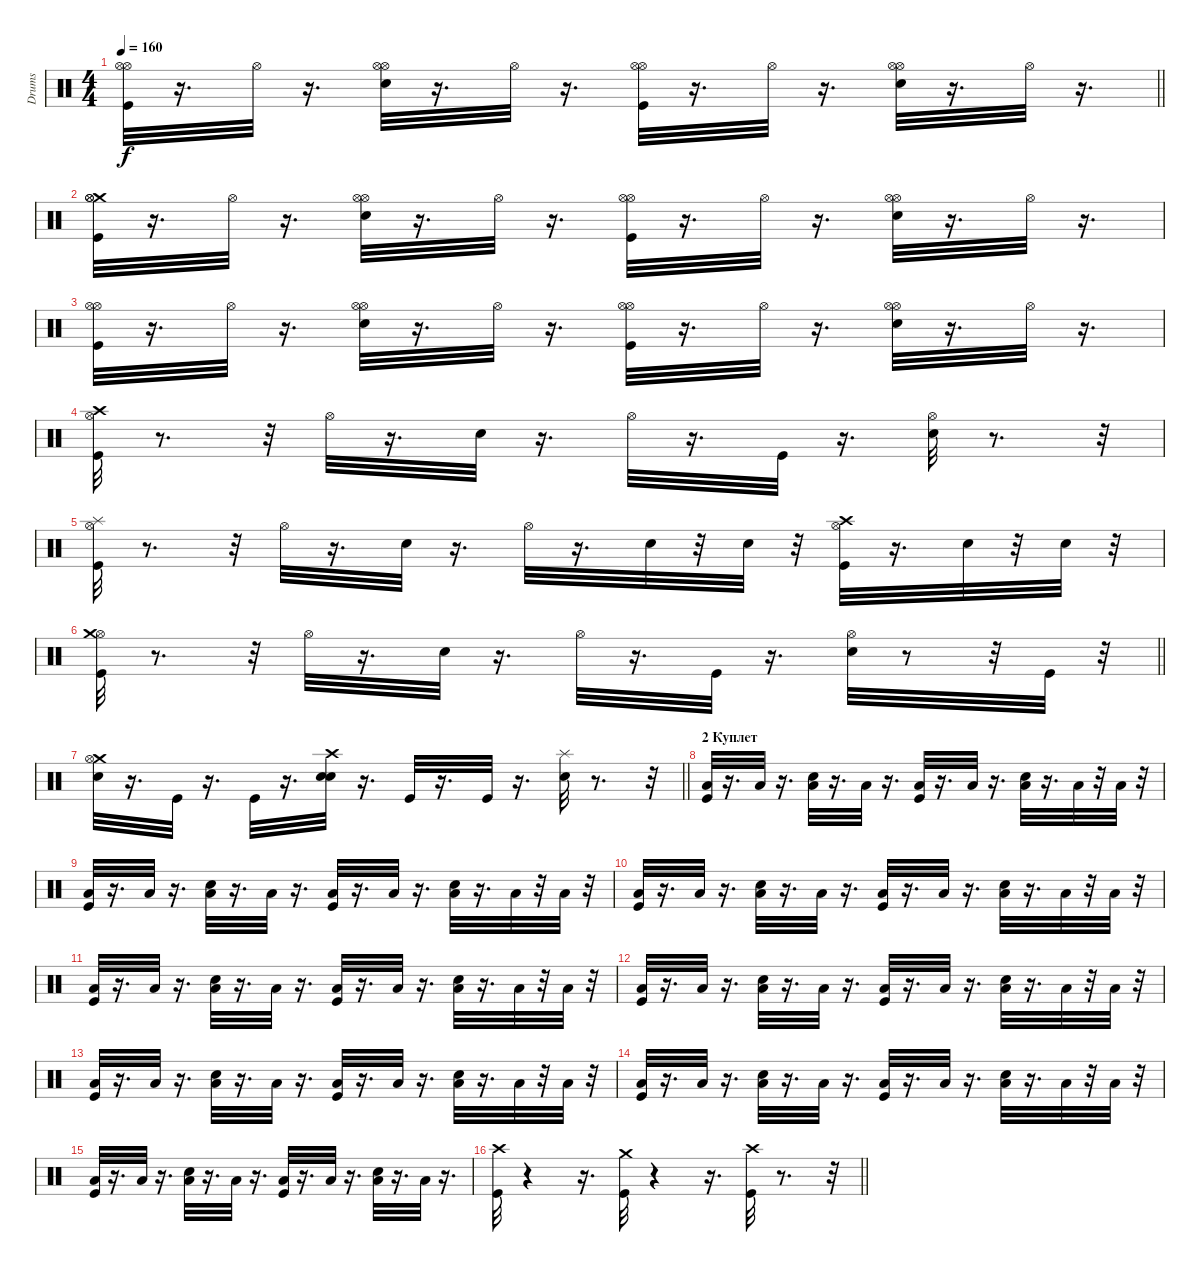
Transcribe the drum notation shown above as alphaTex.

\track ("Drums" "Drums") {instrument percussion}
\staff {score}
\articulation defaults
\ts (4 4)
\tempo 160
\clef neutral
\barLineRight lightlight
\ks c
("Kick (hit)" "Hi-Hat (open)" "Hi-Hat (open)").32{dy f} r.16{d} "Hi-Hat (open)".32 r.16{d} ("Snare (hit) 2" "Hi-Hat (open)" "Hi-Hat (open)").32 r.16{d} "Hi-Hat (open)".32 r.16{d} ("Hi-Hat (open)" "Kick (hit)" "Hi-Hat (open)").32 r.16{d} "Hi-Hat (open)".32 r.16{d} ("Hi-Hat (open)" "Snare (hit) 2" "Hi-Hat (open)").32 r.16{d} "Hi-Hat (open)".32 r.16{d} |
("Crash medium (hit)" "Kick (hit)" "Hi-Hat (open)" "Hi-Hat (open)").32 r.16{d} "Hi-Hat (open)".32 r.16{d} ("Hi-Hat (open)" "Hi-Hat (open)" "Snare (hit) 2").32 r.16{d} "Hi-Hat (open)".32 r.16{d} ("Kick (hit)" "Hi-Hat (open)" "Hi-Hat (open)").32 r.16{d} "Hi-Hat (open)".32 r.16{d} ("Snare (hit) 2" "Hi-Hat (open)" "Hi-Hat (open)").32 r.16{d} "Hi-Hat (open)".32 r.16{d} |
("Kick (hit)" "Hi-Hat (open)" "Hi-Hat (open)").32 r.16{d} "Hi-Hat (open)".32 r.16{d} ("Hi-Hat (open)" "Snare (hit) 2" "Hi-Hat (open)").32 r.16{d} "Hi-Hat (open)".32 r.16{d} ("Kick (hit)" "Hi-Hat (open)" "Hi-Hat (open)").32 r.16{d} "Hi-Hat (open)".32 r.16{d} ("Snare (hit) 2" "Hi-Hat (open)" "Hi-Hat (open)").32 r.16{d} "Hi-Hat (open)".32 r.16{d} |
("Hi-Hat (open)" "Kick (hit)" "Crash high (hit)").32 r.8{d} r.32 "Hi-Hat (open)".32 r.16{d} "Snare (hit) 2".32 r.16{d} "Hi-Hat (open)".32 r.16{d} "Kick (hit)".32 r.16{d} ("Hi-Hat (open)" "Snare (hit) 2").32 r.8{d} r.32 |
("Hi-Hat (open)" "Splash (hit)" "Kick (hit)").32 r.8{d} r.32 "Hi-Hat (open)".32 r.16{d} "Snare (hit) 2".32 r.16{d} "Hi-Hat (open)".32 r.16{d} "Snare (hit) 2".32 r.32 "Snare (hit) 2".32 r.32 ("Hi-Hat (open)" "Crash high (hit)" "Kick (hit)").32 r.16{d} "Snare (hit) 2".32 r.32 "Snare (hit) 2".32 r.32 |
\barLineRight lightlight
("Hi-Hat (open)" "Kick (hit)" "Crash medium (hit)").32 r.8{d} r.32 "Hi-Hat (open)".32 r.16{d} "Snare (hit) 2".32 r.16{d} "Hi-Hat (open)".32 r.16{d} "Kick (hit)".32 r.16{d} ("Snare (hit) 2" "Hi-Hat (open)").32 r.8 r.32 "Kick (hit)".32 r.32 |
\barLineRight lightlight
("Crash medium (hit)" "Snare (hit) 2" "Hi-Hat (open)").32 r.16{d} "Kick (hit)".32 r.16{d} "Kick (hit)".32 r.16{d} ("Crash high (hit)" "Snare (hit) 2" "Snare (hit) 2").32 r.16{d} "Kick (hit)".32 r.16{d} "Kick (hit)".32 r.16{d} ("Splash (hit)" "Snare (hit) 2").32 r.8{d} r.32 |
\section ("" "2 Куплет")
("Kick (hit)" "Low Floor Tom (hit)").32 r.16{d} "Low Floor Tom (hit)".32 r.16{d} ("Low Floor Tom (hit)" "Snare (hit) 2").32 r.16{d} "Low Floor Tom (hit)".32 r.16{d} ("Kick (hit)" "Low Floor Tom (hit)").32 r.16{d} "Low Floor Tom (hit)".32 r.16{d} ("Low Floor Tom (hit)" "Snare (hit) 2").32 r.16{d} "Low Floor Tom (hit)".32 r.32 "Low Floor Tom (hit)".32 r.32 |
("Kick (hit)" "Low Floor Tom (hit)").32 r.16{d} "Low Floor Tom (hit)".32 r.16{d} ("Low Floor Tom (hit)" "Snare (hit) 2").32 r.16{d} "Low Floor Tom (hit)".32 r.16{d} ("Low Floor Tom (hit)" "Kick (hit)").32 r.16{d} "Low Floor Tom (hit)".32 r.16{d} ("Snare (hit) 2" "Low Floor Tom (hit)").32 r.16{d} "Low Floor Tom (hit)".32 r.32 "Low Floor Tom (hit)".32 r.32 |
("Kick (hit)" "Low Floor Tom (hit)").32 r.16{d} "Low Floor Tom (hit)".32 r.16{d} ("Low Floor Tom (hit)" "Snare (hit) 2").32 r.16{d} "Low Floor Tom (hit)".32 r.16{d} ("Kick (hit)" "Low Floor Tom (hit)").32 r.16{d} "Low Floor Tom (hit)".32 r.16{d} ("Low Floor Tom (hit)" "Snare (hit) 2").32 r.16{d} "Low Floor Tom (hit)".32 r.32 "Low Floor Tom (hit)".32 r.32 |
("Kick (hit)" "Low Floor Tom (hit)").32 r.16{d} "Low Floor Tom (hit)".32 r.16{d} ("Low Floor Tom (hit)" "Snare (hit) 2").32 r.16{d} "Low Floor Tom (hit)".32 r.16{d} ("Low Floor Tom (hit)" "Kick (hit)").32 r.16{d} "Low Floor Tom (hit)".32 r.16{d} ("Snare (hit) 2" "Low Floor Tom (hit)").32 r.16{d} "Low Floor Tom (hit)".32 r.32 "Low Floor Tom (hit)".32 r.32 |
("Kick (hit)" "Low Floor Tom (hit)").32 r.16{d} "Low Floor Tom (hit)".32 r.16{d} ("Low Floor Tom (hit)" "Snare (hit) 2").32 r.16{d} "Low Floor Tom (hit)".32 r.16{d} ("Kick (hit)" "Low Floor Tom (hit)").32 r.16{d} "Low Floor Tom (hit)".32 r.16{d} ("Low Floor Tom (hit)" "Snare (hit) 2").32 r.16{d} "Low Floor Tom (hit)".32 r.32 "Low Floor Tom (hit)".32 r.32 |
("Kick (hit)" "Low Floor Tom (hit)").32 r.16{d} "Low Floor Tom (hit)".32 r.16{d} ("Low Floor Tom (hit)" "Snare (hit) 2").32 r.16{d} "Low Floor Tom (hit)".32 r.16{d} ("Low Floor Tom (hit)" "Kick (hit)").32 r.16{d} "Low Floor Tom (hit)".32 r.16{d} ("Snare (hit) 2" "Low Floor Tom (hit)").32 r.16{d} "Low Floor Tom (hit)".32 r.32 "Low Floor Tom (hit)".32 r.32 |
("Kick (hit)" "Low Floor Tom (hit)").32 r.16{d} "Low Floor Tom (hit)".32 r.16{d} ("Low Floor Tom (hit)" "Snare (hit) 2").32 r.16{d} "Low Floor Tom (hit)".32 r.16{d} ("Kick (hit)" "Low Floor Tom (hit)").32 r.16{d} "Low Floor Tom (hit)".32 r.16{d} ("Low Floor Tom (hit)" "Snare (hit) 2").32 r.16{d} "Low Floor Tom (hit)".32 r.32 "Low Floor Tom (hit)".32 r.32 |
("Kick (hit)" "Low Floor Tom (hit)").32 r.16{d} "Low Floor Tom (hit)".32 r.16{d} ("Low Floor Tom (hit)" "Snare (hit) 2").32 r.16{d} "Low Floor Tom (hit)".32 r.16{d} ("Low Floor Tom (hit)" "Kick (hit)").32 r.16{d} "Low Floor Tom (hit)".32 r.16{d} ("Snare (hit) 2" "Low Floor Tom (hit)").32 r.16{d} "Low Floor Tom (hit)".32 r.16{d} |
\barLineRight lightlight
("Crash high (hit)" "Kick (hit)").32 r.4 r.16{d} ("Kick (hit)" "Crash medium (hit)").32 r.4 r.16{d} ("Crash high (hit)" "Kick (hit)").32 r.8{d} r.32
